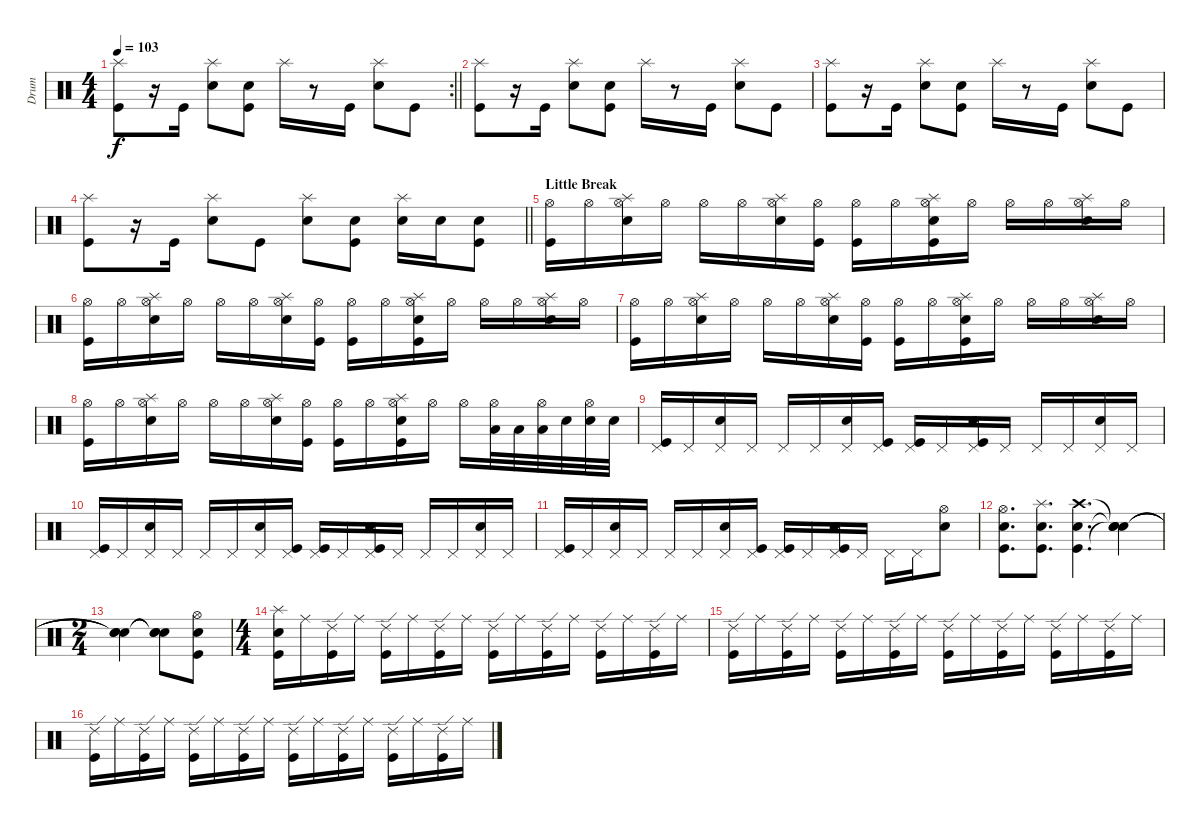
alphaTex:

\track ("Drum" "Drum") {instrument percussion}
\staff {score}
\articulation defaults
\rc 2
\ts (4 4)
\tempo 103
\clef neutral
\barLineRight lightlight
\ks c
("Splash (hit)" "Kick (hit)").8{dy f} r.16 "Kick (hit)".16 ("Splash (hit)" "Snare (hit) 2").8 ("Snare (hit) 2" "Kick (hit)").8 "Splash (hit)".16 r.8 "Kick (hit)".16 ("Splash (hit)" "Snare (hit) 2").8 "Kick (hit)".8 |
("Splash (hit)" "Kick (hit)").8 r.16 "Kick (hit)".16 ("Splash (hit)" "Snare (hit) 2").8 ("Snare (hit) 2" "Kick (hit)").8 "Splash (hit)".16 r.8 "Kick (hit)".16 ("Splash (hit)" "Snare (hit) 2").8 "Kick (hit)".8 |
("Splash (hit)" "Kick (hit)").8 r.16 "Kick (hit)".16 ("Splash (hit)" "Snare (hit) 2").8 ("Snare (hit) 2" "Kick (hit)").8 "Splash (hit)".16 r.8 "Kick (hit)".16 ("Splash (hit)" "Snare (hit) 2").8 "Kick (hit)".8 |
\barLineRight lightlight
("Splash (hit)" "Kick (hit)").8 r.16 "Kick (hit)".16 ("Splash (hit)" "Snare (hit) 2").8 "Kick (hit)".8 ("Splash (hit)" "Snare (hit) 2").8 ("Snare (hit) 2" "Kick (hit)").8 ("Splash (hit)" "Snare (hit) 2").16 "Snare (hit) 2".16 ("Snare (hit) 2" "Kick (hit)").8 |
\section ("" "Little Break")
("Hi-Hat (open)" "Kick (hit)").16 "Hi-Hat (open)".16 ("Hi-Hat (open)" "Splash (hit)" "Snare (hit) 2").16 "Hi-Hat (open)".16 "Hi-Hat (open)".16 "Hi-Hat (open)".16 ("Hi-Hat (open)" "Splash (hit)" "Snare (hit) 2").16 ("Hi-Hat (open)" "Kick (hit)").16 ("Hi-Hat (open)" "Kick (hit)").16 "Hi-Hat (open)".16 ("Hi-Hat (open)" "Splash (hit)" "Snare (hit) 2" "Kick (hit)").16 "Hi-Hat (open)".16 "Hi-Hat (open)".16 "Hi-Hat (open)".16 ("Hi-Hat (open)" "Splash (hit)" "Snare (hit) 2").16 "Hi-Hat (open)".16 |
("Hi-Hat (open)" "Kick (hit)").16 "Hi-Hat (open)".16 ("Hi-Hat (open)" "Splash (hit)" "Snare (hit) 2").16 "Hi-Hat (open)".16 "Hi-Hat (open)".16 "Hi-Hat (open)".16 ("Hi-Hat (open)" "Splash (hit)" "Snare (hit) 2").16 ("Hi-Hat (open)" "Kick (hit)").16 ("Hi-Hat (open)" "Kick (hit)").16 "Hi-Hat (open)".16 ("Hi-Hat (open)" "Splash (hit)" "Snare (hit) 2" "Kick (hit)").16 "Hi-Hat (open)".16 "Hi-Hat (open)".16 "Hi-Hat (open)".16 ("Hi-Hat (open)" "Splash (hit)" "Snare (hit) 2").16 "Hi-Hat (open)".16 |
("Hi-Hat (open)" "Kick (hit)").16 "Hi-Hat (open)".16 ("Hi-Hat (open)" "Splash (hit)" "Snare (hit) 2").16 "Hi-Hat (open)".16 "Hi-Hat (open)".16 "Hi-Hat (open)".16 ("Hi-Hat (open)" "Splash (hit)" "Snare (hit) 2").16 ("Hi-Hat (open)" "Kick (hit)").16 ("Hi-Hat (open)" "Kick (hit)").16 "Hi-Hat (open)".16 ("Hi-Hat (open)" "Splash (hit)" "Snare (hit) 2" "Kick (hit)").16 "Hi-Hat (open)".16 "Hi-Hat (open)".16 "Hi-Hat (open)".16 ("Hi-Hat (open)" "Splash (hit)" "Snare (hit) 2").16 "Hi-Hat (open)".16 |
("Hi-Hat (open)" "Kick (hit)").16 "Hi-Hat (open)".16 ("Hi-Hat (open)" "Splash (hit)" "Snare (hit) 2").16 "Hi-Hat (open)".16 "Hi-Hat (open)".16 "Hi-Hat (open)".16 ("Hi-Hat (open)" "Splash (hit)" "Snare (hit) 2").16 ("Hi-Hat (open)" "Kick (hit)").16 ("Hi-Hat (open)" "Kick (hit)").16 "Hi-Hat (open)".16 ("Hi-Hat (open)" "Splash (hit)" "Snare (hit) 2" "Kick (hit)").16 "Hi-Hat (open)".16 "Hi-Hat (open)".16 ("Hi-Hat (open)" "Low Tom (hit)").32 "Low Tom (hit)".32 ("Hi-Hat (open)" "Low Tom (hit)").32 "Snare (hit) 2".32 ("Hi-Hat (open)" "Snare (hit) 2").32 "Snare (hit) 2".32 |
("Pedal Hi-Hat (hit)" "Kick (hit)").16 "Pedal Hi-Hat (hit)".16 ("Pedal Hi-Hat (hit)" "Snare (hit) 2").16 "Pedal Hi-Hat (hit)".16 "Pedal Hi-Hat (hit)".16 "Pedal Hi-Hat (hit)".16 ("Pedal Hi-Hat (hit)" "Snare (hit) 2").16 ("Pedal Hi-Hat (hit)" "Kick (hit)").16 ("Pedal Hi-Hat (hit)" "Kick (hit)").16 "Pedal Hi-Hat (hit)".16 ("Pedal Hi-Hat (hit)" "Snare (hit) 2" "Kick (hit)").16 "Pedal Hi-Hat (hit)".16 "Pedal Hi-Hat (hit)".16 "Pedal Hi-Hat (hit)".16 ("Pedal Hi-Hat (hit)" "Snare (hit) 2").16 "Pedal Hi-Hat (hit)".16 |
("Pedal Hi-Hat (hit)" "Kick (hit)").16 "Pedal Hi-Hat (hit)".16 ("Pedal Hi-Hat (hit)" "Snare (hit) 2").16 "Pedal Hi-Hat (hit)".16 "Pedal Hi-Hat (hit)".16 "Pedal Hi-Hat (hit)".16 ("Pedal Hi-Hat (hit)" "Snare (hit) 2").16 ("Pedal Hi-Hat (hit)" "Kick (hit)").16 ("Pedal Hi-Hat (hit)" "Kick (hit)").16 "Pedal Hi-Hat (hit)".16 ("Pedal Hi-Hat (hit)" "Snare (hit) 2" "Kick (hit)").16 "Pedal Hi-Hat (hit)".16 "Pedal Hi-Hat (hit)".16 "Pedal Hi-Hat (hit)".16 ("Pedal Hi-Hat (hit)" "Snare (hit) 2").16 "Pedal Hi-Hat (hit)".16 |
("Pedal Hi-Hat (hit)" "Kick (hit)").16 "Pedal Hi-Hat (hit)".16 ("Pedal Hi-Hat (hit)" "Snare (hit) 2").16 "Pedal Hi-Hat (hit)".16 "Pedal Hi-Hat (hit)".16 "Pedal Hi-Hat (hit)".16 ("Pedal Hi-Hat (hit)" "Snare (hit) 2").16 ("Pedal Hi-Hat (hit)" "Kick (hit)").16 ("Pedal Hi-Hat (hit)" "Kick (hit)").16 "Pedal Hi-Hat (hit)".16 ("Pedal Hi-Hat (hit)" "Snare (hit) 2" "Kick (hit)").16 "Pedal Hi-Hat (hit)".16 "Pedal Hi-Hat (hit)".16 "Pedal Hi-Hat (hit)".16 ("Hi-Hat (open)" "Snare (hit) 2").8 |
("Hi-Hat (open)" "Snare (hit) 2" "Kick (hit)").8{d} ("Splash (hit)" "Snare (hit) 2" "Kick (hit)").8{d} ("Crash high (hit)" "Snare (hit) 2" "Kick (hit)").4{d} ("Snare (hit)"{t} "Snare (hit)"{t} "Snare (hit)"{t}).4 |
\ts (2 4)
("Snare (hit)"{t} "Snare (hit)"{t} "Snare (hit)"{t}).4 ("Snare (hit)"{t} "Snare (hit)"{t} "Snare (hit)"{t}).8 ("Hi-Hat (open)" "Snare (hit) 2" "Kick (hit)").8 |
\ts (4 4)
("Splash (hit)" "Snare (hit) 2" "Kick (hit)").16 "Ride (middle)".16 ("Ride (edge) 2" "Kick (hit)").16 "Ride (middle)".16 ("Ride (edge) 2" "Kick (hit)").16 "Ride (middle)".16 ("Ride (edge) 2" "Kick (hit)").16 "Ride (middle)".16 ("Ride (edge) 2" "Kick (hit)").16 "Ride (middle)".16 ("Ride (edge) 2" "Kick (hit)").16 "Ride (middle)".16 ("Ride (edge) 2" "Kick (hit)").16 "Ride (middle)".16 ("Ride (edge) 2" "Kick (hit)").16 "Ride (middle)".16 |
("Ride (edge) 2" "Kick (hit)").16 "Ride (middle)".16 ("Ride (edge) 2" "Kick (hit)").16 "Ride (middle)".16 ("Ride (edge) 2" "Kick (hit)").16 "Ride (middle)".16 ("Ride (edge) 2" "Kick (hit)").16 "Ride (middle)".16 ("Ride (edge) 2" "Kick (hit)").16 "Ride (middle)".16 ("Ride (edge) 2" "Kick (hit)").16 "Ride (middle)".16 ("Ride (edge) 2" "Kick (hit)").16 "Ride (middle)".16 ("Ride (edge) 2" "Kick (hit)").16 "Ride (middle)".16 |
("Ride (edge) 2" "Kick (hit)").16 "Ride (middle)".16 ("Ride (edge) 2" "Kick (hit)").16 "Ride (middle)".16 ("Ride (edge) 2" "Kick (hit)").16 "Ride (middle)".16 ("Ride (edge) 2" "Kick (hit)").16 "Ride (middle)".16 ("Ride (edge) 2" "Kick (hit)").16 "Ride (middle)".16 ("Ride (edge) 2" "Kick (hit)").16 "Ride (middle)".16 ("Ride (edge) 2" "Kick (hit)").16 "Ride (middle)".16 ("Ride (edge) 2" "Kick (hit)").16 "Ride (middle)".16
